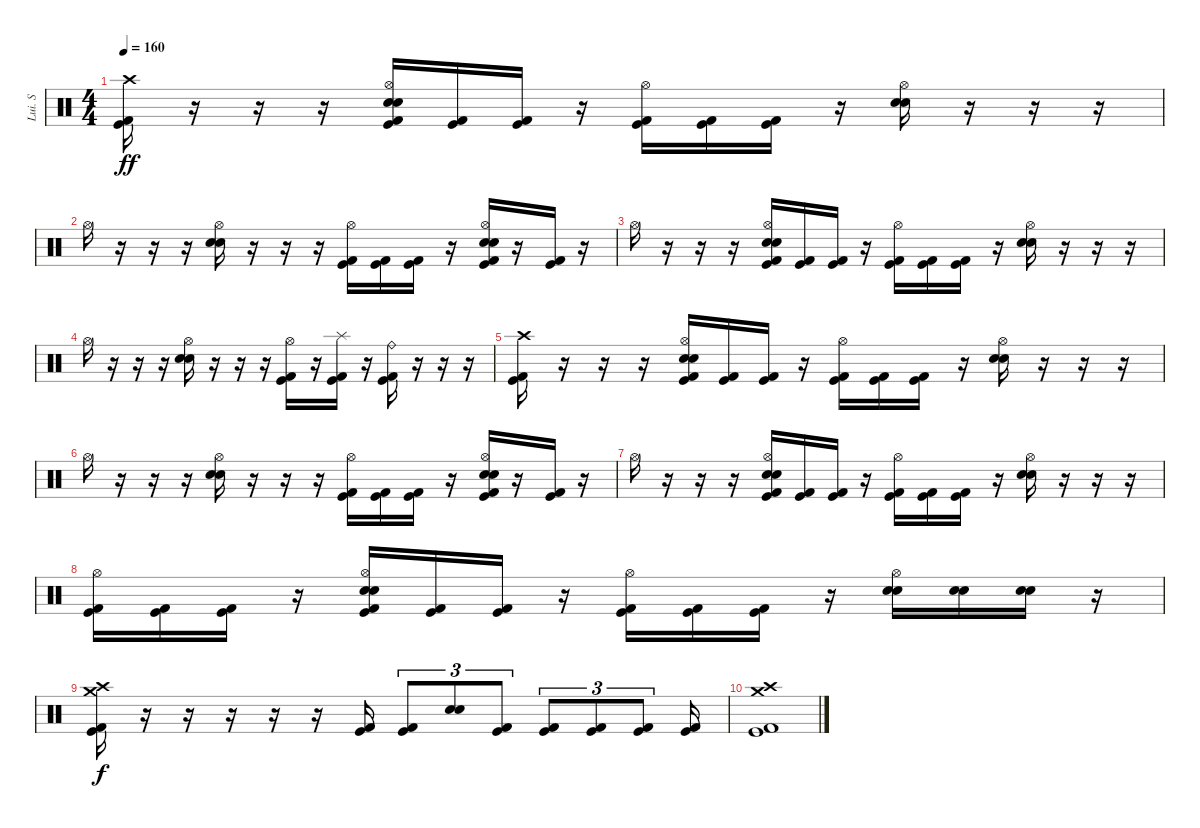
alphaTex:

\track ("Lui. S" "Lui. S") {instrument percussion}
\staff {score}
\articulation defaults
\ts (4 4)
\tempo 160
\clef neutral
\ks c
("Crash high (hit)" "Kick (hit)" "Kick (hit) 2").16{dy ff} r.16 r.16 r.16 ("Hi-Hat (open)" "Snare (hit) 2" "Electric Snare (hit)" "Kick (hit)" "Kick (hit) 2").16 ("Kick (hit)" "Kick (hit) 2").16 ("Kick (hit)" "Kick (hit) 2").16 r.16 ("Hi-Hat (open)" "Kick (hit)" "Kick (hit) 2").16 ("Kick (hit)" "Kick (hit) 2").16 ("Kick (hit)" "Kick (hit) 2").16 r.16 ("Hi-Hat (open)" "Electric Snare (hit)" "Snare (hit) 2").16 r.16 r.16 r.16 |
"Hi-Hat (open)".16 r.16 r.16 r.16 ("Hi-Hat (open)" "Electric Snare (hit)" "Snare (hit) 2").16 r.16 r.16 r.16 ("Hi-Hat (open)" "Kick (hit)" "Kick (hit) 2").16 ("Kick (hit) 2" "Kick (hit)").16 ("Kick (hit) 2" "Kick (hit)").16 r.16 ("Hi-Hat (open)" "Electric Snare (hit)" "Snare (hit) 2" "Kick (hit)" "Kick (hit) 2").16 r.16 ("Kick (hit)" "Kick (hit) 2").16 r.16 |
"Hi-Hat (open)".16 r.16 r.16 r.16 ("Hi-Hat (open)" "Electric Snare (hit)" "Snare (hit) 2" "Kick (hit)" "Kick (hit) 2").16 ("Kick (hit)" "Kick (hit) 2").16 ("Kick (hit)" "Kick (hit) 2").16 r.16 ("Hi-Hat (open)" "Kick (hit)" "Kick (hit) 2").16 ("Kick (hit)" "Kick (hit) 2").16 ("Kick (hit)" "Kick (hit) 2").16 r.16 ("Hi-Hat (open)" "Electric Snare (hit)" "Snare (hit) 2").16 r.16 r.16 r.16 |
"Hi-Hat (open)".16 r.16 r.16 r.16 ("Hi-Hat (open)" "Electric Snare (hit)" "Snare (hit) 2").16 r.16 r.16 r.16 ("Hi-Hat (open)" "Kick (hit)" "Kick (hit) 2").16 r.16 ("Splash (hit)" "Kick (hit)" "Kick (hit) 2").16 r.16 ("Ride (bell)" "Kick (hit)" "Kick (hit) 2").16 r.16 r.16 r.16 |
("Crash high (hit)" "Kick (hit)" "Kick (hit) 2").16 r.16 r.16 r.16 ("Hi-Hat (open)" "Electric Snare (hit)" "Snare (hit) 2" "Kick (hit)" "Kick (hit) 2").16 ("Kick (hit)" "Kick (hit) 2").16 ("Kick (hit)" "Kick (hit) 2").16 r.16 ("Hi-Hat (open)" "Kick (hit)" "Kick (hit) 2").16 ("Kick (hit)" "Kick (hit) 2").16 ("Kick (hit)" "Kick (hit) 2").16 r.16 ("Hi-Hat (open)" "Electric Snare (hit)" "Snare (hit) 2").16 r.16 r.16 r.16 |
"Hi-Hat (open)".16 r.16 r.16 r.16 ("Hi-Hat (open)" "Electric Snare (hit)" "Snare (hit) 2").16 r.16 r.16 r.16 ("Hi-Hat (open)" "Kick (hit)" "Kick (hit) 2").16 ("Kick (hit) 2" "Kick (hit)").16 ("Kick (hit) 2" "Kick (hit)").16 r.16 ("Hi-Hat (open)" "Electric Snare (hit)" "Snare (hit) 2" "Kick (hit)" "Kick (hit) 2").16 r.16 ("Kick (hit)" "Kick (hit) 2").16 r.16 |
"Hi-Hat (open)".16 r.16 r.16 r.16 ("Hi-Hat (open)" "Electric Snare (hit)" "Snare (hit) 2" "Kick (hit)" "Kick (hit) 2").16 ("Kick (hit)" "Kick (hit) 2").16 ("Kick (hit)" "Kick (hit) 2").16 r.16 ("Hi-Hat (open)" "Kick (hit)" "Kick (hit) 2").16 ("Kick (hit)" "Kick (hit) 2").16 ("Kick (hit)" "Kick (hit) 2").16 r.16 ("Hi-Hat (open)" "Electric Snare (hit)" "Snare (hit) 2").16 r.16 r.16 r.16 |
("Hi-Hat (open)" "Kick (hit)" "Kick (hit) 2").16 ("Kick (hit)" "Kick (hit) 2").16 ("Kick (hit)" "Kick (hit) 2").16 r.16 ("Hi-Hat (open)" "Electric Snare (hit)" "Snare (hit) 2" "Kick (hit)" "Kick (hit) 2").16 ("Kick (hit)" "Kick (hit) 2").16 ("Kick (hit)" "Kick (hit) 2").16 r.16 ("Hi-Hat (open)" "Kick (hit)" "Kick (hit) 2").16 ("Kick (hit)" "Kick (hit) 2").16 ("Kick (hit)" "Kick (hit) 2").16 r.16 ("Hi-Hat (open)" "Electric Snare (hit)" "Snare (hit) 2").16 ("Electric Snare (hit)" "Snare (hit) 2").16 ("Electric Snare (hit)" "Snare (hit) 2").16 r.16 |
("Crash high (hit)" "Crash medium (hit)" "Kick (hit)" "Kick (hit) 2").16{dy f} r.16 r.16 r.16 r.16 r.16 ("Kick (hit)" "Kick (hit) 2").16 ("Kick (hit)" "Kick (hit) 2").8{tu (3 2)} ("Electric Snare (hit)" "Snare (hit) 2").8{tu (3 2)} ("Kick (hit)" "Kick (hit) 2").8{tu (3 2)} ("Kick (hit)" "Kick (hit) 2").8{tu (3 2)} ("Kick (hit)" "Kick (hit) 2").8{tu (3 2)} ("Kick (hit)" "Kick (hit) 2").8{tu (3 2)} ("Kick (hit)" "Kick (hit) 2").16 |
("Crash high (hit)" "Crash medium (hit)" "Kick (hit)" "Kick (hit) 2").1
